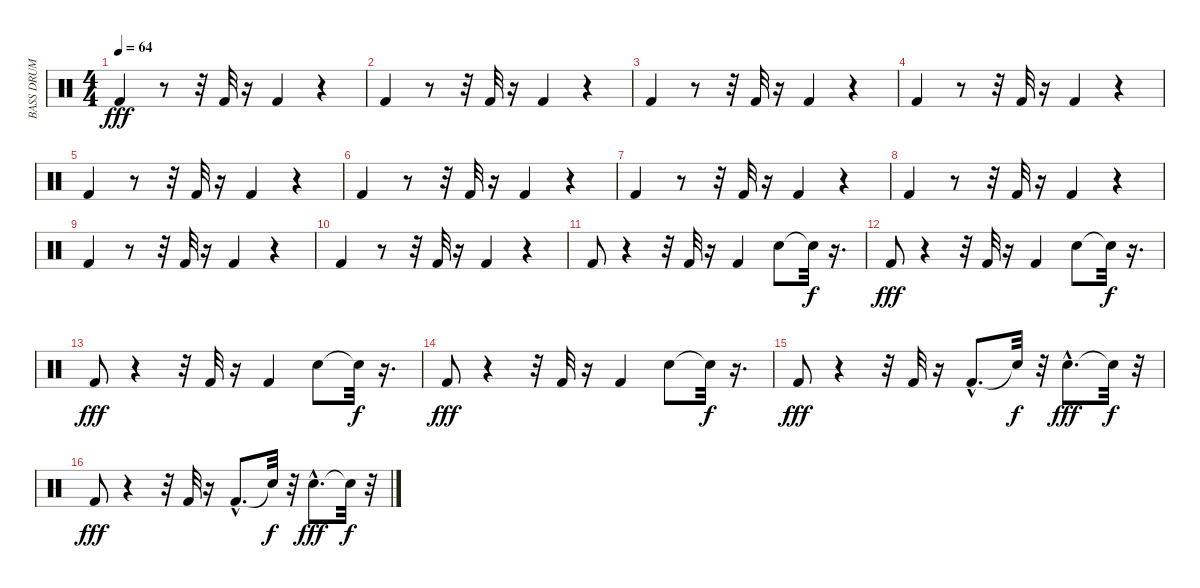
\track ("BASS DRUM" "BASS DRUM") {instrument percussion}
\staff {score}
\articulation defaults
\ts (4 4)
\tempo 64
\clef neutral
\ks c "Kick (hit) 2".4{dy fff}
r.8 r.32 "Kick (hit) 2".32 r.16 "Kick (hit) 2".4 r.4 |
"Kick (hit) 2".4 r.8 r.32 "Kick (hit) 2".32 r.16 "Kick (hit) 2".4 r.4 |
"Kick (hit) 2".4 r.8 r.32 "Kick (hit) 2".32 r.16 "Kick (hit) 2".4 r.4 |
"Kick (hit) 2".4 r.8 r.32 "Kick (hit) 2".32 r.16 "Kick (hit) 2".4 r.4 |
"Kick (hit) 2".4 r.8 r.32 "Kick (hit) 2".32 r.16 "Kick (hit) 2".4 r.4 |
"Kick (hit) 2".4 r.8 r.32 "Kick (hit) 2".32 r.16 "Kick (hit) 2".4 r.4 |
"Kick (hit) 2".4 r.8 r.32 "Kick (hit) 2".32 r.16 "Kick (hit) 2".4 r.4 |
"Kick (hit) 2".4 r.8 r.32 "Kick (hit) 2".32 r.16 "Kick (hit) 2".4 r.4 |
"Kick (hit) 2".4 r.8 r.32 "Kick (hit) 2".32 r.16 "Kick (hit) 2".4 r.4 |
"Kick (hit) 2".4 r.8 r.32 "Kick (hit) 2".32 r.16 "Kick (hit) 2".4 r.4 |
"Kick (hit) 2".8 r.4 r.32 "Kick (hit) 2".32 r.16 "Kick (hit) 2".4 "Snare (hit) 2".8 "Snare (hit)"{t}.32{dy f} r.16{d} |
"Kick (hit) 2".8{dy fff} r.4 r.32 "Kick (hit) 2".32 r.16 "Kick (hit) 2".4 "Snare (hit) 2".8 "Snare (hit)"{t}.32{dy f} r.16{d} |
"Kick (hit) 2".8{dy fff} r.4 r.32 "Kick (hit) 2".32 r.16 "Kick (hit) 2".4 "Snare (hit) 2".8 "Snare (hit)"{t}.32{dy f} r.16{d} |
"Kick (hit) 2".8{dy fff} r.4 r.32 "Kick (hit) 2".32 r.16 "Kick (hit) 2".4 "Snare (hit) 2".8 "Snare (hit)"{t}.32{dy f} r.16{d} |
"Kick (hit) 2".8{dy fff} r.4 r.32 "Kick (hit) 2".32 r.16 "Kick (hit) 2"{hac}.8{d} "Snare (hit)"{t}.32{dy f} r.32 "Snare (hit) 2"{hac}.8{d dy fff} "Snare (hit)"{t}.32{dy f} r.32 |
"Kick (hit) 2".8{dy fff} r.4 r.32 "Kick (hit) 2".32 r.16 "Kick (hit) 2"{hac}.8{d} "Snare (hit)"{t}.32{dy f} r.32 "Snare (hit) 2"{hac}.8{d dy fff} "Snare (hit)"{t}.32{dy f} r.32
